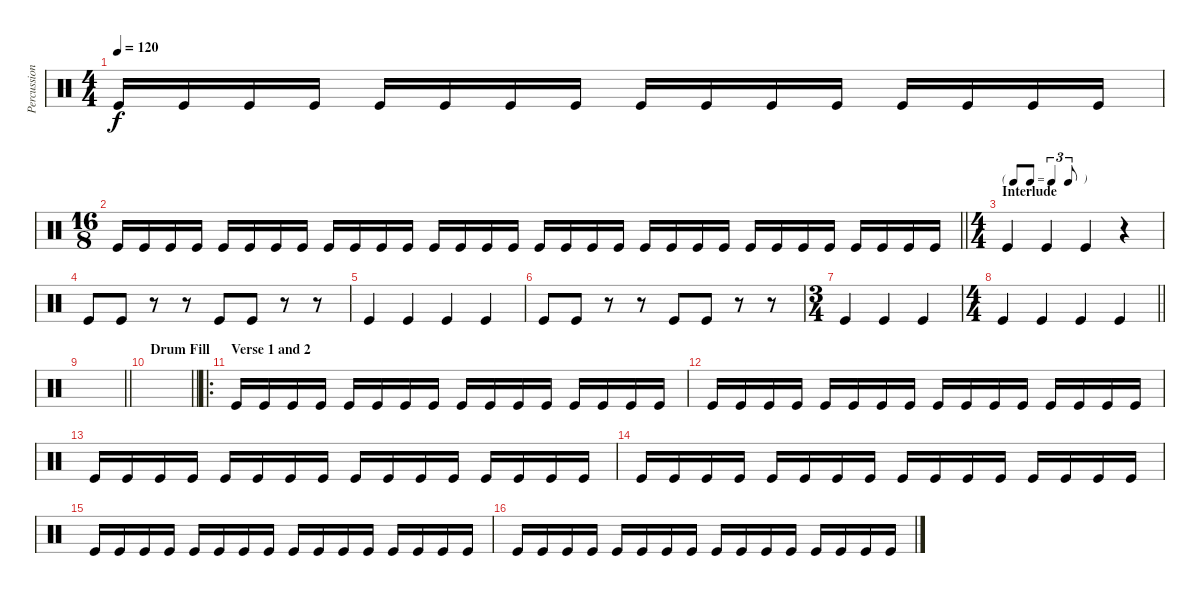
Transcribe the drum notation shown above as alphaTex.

\track ("Percussion" "Percussion") {instrument percussion}
\staff {score}
\articulation defaults
\ts (4 4)
\tempo 120
\clef neutral
\ks c "Kick (hit)".16{dy f} "Kick (hit)".16 "Kick (hit)".16 "Kick (hit)".16 "Kick (hit)".16 "Kick (hit)".16 "Kick (hit)".16 "Kick (hit)".16 "Kick (hit)".16 "Kick (hit)".16 "Kick (hit)".16 "Kick (hit)".16 "Kick (hit)".16 "Kick (hit)".16 "Kick (hit)".16 "Kick (hit)".16
|
\ts (16 8)
\barLineRight lightlight "Kick (hit)".16 "Kick (hit)".16 "Kick (hit)".16 "Kick (hit)".16 "Kick (hit)".16 "Kick (hit)".16 "Kick (hit)".16 "Kick (hit)".16 "Kick (hit)".16 "Kick (hit)".16 "Kick (hit)".16 "Kick (hit)".16 "Kick (hit)".16 "Kick (hit)".16 "Kick (hit)".16 "Kick (hit)".16 "Kick (hit)".16 "Kick (hit)".16 "Kick (hit)".16 "Kick (hit)".16 "Kick (hit)".16 "Kick (hit)".16 "Kick (hit)".16 "Kick (hit)".16 "Kick (hit)".16 "Kick (hit)".16 "Kick (hit)".16 "Kick (hit)".16 "Kick (hit)".16 "Kick (hit)".16 "Kick (hit)".16 "Kick (hit)".16
|
\ts (4 4)
\tf triplet8th
\section ("" "Interlude")
"Kick (hit)".4 "Kick (hit)".4 "Kick (hit)".4 r.4 |
"Kick (hit)".8 "Kick (hit)".8 r.8 r.8 "Kick (hit)".8 "Kick (hit)".8 r.8 r.8 |
"Kick (hit)".4 "Kick (hit)".4 "Kick (hit)".4 "Kick (hit)".4 |
"Kick (hit)".8 "Kick (hit)".8 r.8 r.8 "Kick (hit)".8 "Kick (hit)".8 r.8 r.8 |
\ts (3 4)
"Kick (hit)".4 "Kick (hit)".4 "Kick (hit)".4 |
\ts (4 4)
\barLineRight lightlight "Kick (hit)".4 "Kick (hit)".4 "Kick (hit)".4 "Kick (hit)".4
|
\barLineRight lightlight
|
\section ("" "Drum Fill")
\barLineRight lightlight
|
\ro
\section ("" "Verse 1 and 2")
"Kick (hit)".16 "Kick (hit)".16 "Kick (hit)".16 "Kick (hit)".16 "Kick (hit)".16 "Kick (hit)".16 "Kick (hit)".16 "Kick (hit)".16 "Kick (hit)".16 "Kick (hit)".16 "Kick (hit)".16 "Kick (hit)".16 "Kick (hit)".16 "Kick (hit)".16 "Kick (hit)".16 "Kick (hit)".16 |
"Kick (hit)".16 "Kick (hit)".16 "Kick (hit)".16 "Kick (hit)".16 "Kick (hit)".16 "Kick (hit)".16 "Kick (hit)".16 "Kick (hit)".16 "Kick (hit)".16 "Kick (hit)".16 "Kick (hit)".16 "Kick (hit)".16 "Kick (hit)".16 "Kick (hit)".16 "Kick (hit)".16 "Kick (hit)".16 |
"Kick (hit)".16 "Kick (hit)".16 "Kick (hit)".16 "Kick (hit)".16 "Kick (hit)".16 "Kick (hit)".16 "Kick (hit)".16 "Kick (hit)".16 "Kick (hit)".16 "Kick (hit)".16 "Kick (hit)".16 "Kick (hit)".16 "Kick (hit)".16 "Kick (hit)".16 "Kick (hit)".16 "Kick (hit)".16 |
"Kick (hit)".16 "Kick (hit)".16 "Kick (hit)".16 "Kick (hit)".16 "Kick (hit)".16 "Kick (hit)".16 "Kick (hit)".16 "Kick (hit)".16 "Kick (hit)".16 "Kick (hit)".16 "Kick (hit)".16 "Kick (hit)".16 "Kick (hit)".16 "Kick (hit)".16 "Kick (hit)".16 "Kick (hit)".16 |
"Kick (hit)".16 "Kick (hit)".16 "Kick (hit)".16 "Kick (hit)".16 "Kick (hit)".16 "Kick (hit)".16 "Kick (hit)".16 "Kick (hit)".16 "Kick (hit)".16 "Kick (hit)".16 "Kick (hit)".16 "Kick (hit)".16 "Kick (hit)".16 "Kick (hit)".16 "Kick (hit)".16 "Kick (hit)".16 |
"Kick (hit)".16 "Kick (hit)".16 "Kick (hit)".16 "Kick (hit)".16 "Kick (hit)".16 "Kick (hit)".16 "Kick (hit)".16 "Kick (hit)".16 "Kick (hit)".16 "Kick (hit)".16 "Kick (hit)".16 "Kick (hit)".16 "Kick (hit)".16 "Kick (hit)".16 "Kick (hit)".16 "Kick (hit)".16
